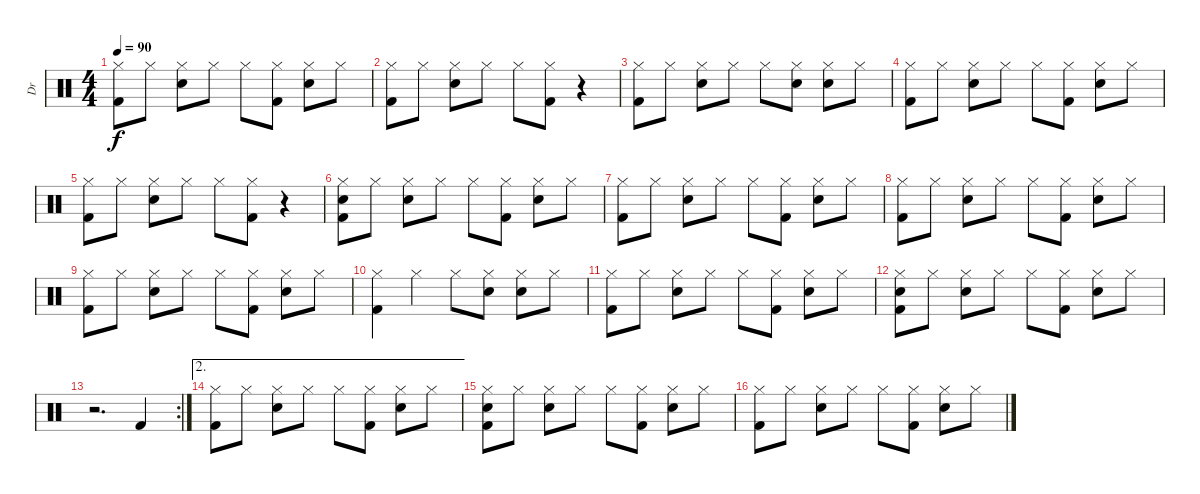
\track ("Dr" "Dr") {instrument percussion}
\staff {score}
\articulation defaults
\ts (4 4)
\tempo 90
\clef neutral
\ks c
("Hi-Hat (closed)" "Kick (hit) 2").8{dy f} "Hi-Hat (closed)".8 ("Hi-Hat (closed)" "Electric Snare (hit)").8 "Hi-Hat (closed)".8 "Hi-Hat (closed)".8 ("Hi-Hat (closed)" "Kick (hit) 2").8 ("Hi-Hat (closed)" "Electric Snare (hit)").8 "Hi-Hat (closed)".8 |
("Hi-Hat (closed)" "Kick (hit) 2").8 "Hi-Hat (closed)".8 ("Hi-Hat (closed)" "Electric Snare (hit)").8 "Hi-Hat (closed)".8 "Hi-Hat (closed)".8 ("Hi-Hat (closed)" "Kick (hit) 2").8 r.4 |
("Hi-Hat (closed)" "Kick (hit) 2").8 "Hi-Hat (closed)".8 ("Hi-Hat (closed)" "Electric Snare (hit)").8 "Hi-Hat (closed)".8 "Hi-Hat (closed)".8 ("Hi-Hat (closed)" "Electric Snare (hit)").8 ("Hi-Hat (closed)" "Electric Snare (hit)").8 "Hi-Hat (closed)".8 |
("Hi-Hat (closed)" "Kick (hit) 2").8 "Hi-Hat (closed)".8 ("Hi-Hat (closed)" "Electric Snare (hit)").8 "Hi-Hat (closed)".8 "Hi-Hat (closed)".8 ("Hi-Hat (closed)" "Kick (hit) 2").8 ("Hi-Hat (closed)" "Electric Snare (hit)").8 "Hi-Hat (closed)".8 |
("Hi-Hat (closed)" "Kick (hit) 2").8 "Hi-Hat (closed)".8 ("Hi-Hat (closed)" "Electric Snare (hit)").8 "Hi-Hat (closed)".8 "Hi-Hat (closed)".8 ("Hi-Hat (closed)" "Kick (hit) 2").8 r.4 |
("Hi-Hat (closed)" "Electric Snare (hit)" "Kick (hit) 2").8 "Hi-Hat (closed)".8 ("Hi-Hat (closed)" "Electric Snare (hit)").8 "Hi-Hat (closed)".8 "Hi-Hat (closed)".8 ("Hi-Hat (closed)" "Kick (hit) 2").8 ("Hi-Hat (closed)" "Electric Snare (hit)").8 "Hi-Hat (closed)".8 |
("Hi-Hat (closed)" "Kick (hit) 2").8 "Hi-Hat (closed)".8 ("Hi-Hat (closed)" "Electric Snare (hit)").8 "Hi-Hat (closed)".8 "Hi-Hat (closed)".8 ("Hi-Hat (closed)" "Kick (hit) 2").8 ("Hi-Hat (closed)" "Electric Snare (hit)").8 "Hi-Hat (closed)".8 |
("Hi-Hat (closed)" "Kick (hit) 2").8 "Hi-Hat (closed)".8 ("Hi-Hat (closed)" "Electric Snare (hit)").8 "Hi-Hat (closed)".8 "Hi-Hat (closed)".8 ("Hi-Hat (closed)" "Kick (hit) 2").8 ("Hi-Hat (closed)" "Electric Snare (hit)").8 "Hi-Hat (closed)".8 |
("Hi-Hat (closed)" "Kick (hit) 2").8 "Hi-Hat (closed)".8 ("Hi-Hat (closed)" "Electric Snare (hit)").8 "Hi-Hat (closed)".8 "Hi-Hat (closed)".8 ("Hi-Hat (closed)" "Kick (hit) 2").8 ("Hi-Hat (closed)" "Electric Snare (hit)").8 "Hi-Hat (closed)".8 |
("Hi-Hat (closed)" "Kick (hit) 2").4 "Hi-Hat (closed)".4 "Hi-Hat (closed)".8 ("Hi-Hat (closed)" "Electric Snare (hit)").8 ("Hi-Hat (closed)" "Electric Snare (hit)").8 "Hi-Hat (closed)".8 |
("Hi-Hat (closed)" "Kick (hit) 2").8 "Hi-Hat (closed)".8 ("Hi-Hat (closed)" "Electric Snare (hit)").8 "Hi-Hat (closed)".8 "Hi-Hat (closed)".8 ("Hi-Hat (closed)" "Kick (hit) 2").8 ("Hi-Hat (closed)" "Electric Snare (hit)").8 "Hi-Hat (closed)".8 |
("Hi-Hat (closed)" "Electric Snare (hit)" "Kick (hit) 2").8 "Hi-Hat (closed)".8 ("Hi-Hat (closed)" "Electric Snare (hit)").8 "Hi-Hat (closed)".8 "Hi-Hat (closed)".8 ("Hi-Hat (closed)" "Kick (hit) 2").8 ("Hi-Hat (closed)" "Electric Snare (hit)").8 "Hi-Hat (closed)".8 |
\rc 2
r.2{d} "Kick (hit) 2".4 |
\ae 2
("Hi-Hat (closed)" "Kick (hit) 2").8 "Hi-Hat (closed)".8 ("Hi-Hat (closed)" "Electric Snare (hit)").8 "Hi-Hat (closed)".8 "Hi-Hat (closed)".8 ("Hi-Hat (closed)" "Kick (hit) 2").8 ("Hi-Hat (closed)" "Electric Snare (hit)").8 "Hi-Hat (closed)".8 |
("Hi-Hat (closed)" "Electric Snare (hit)" "Kick (hit) 2").8 "Hi-Hat (closed)".8 ("Hi-Hat (closed)" "Electric Snare (hit)").8 "Hi-Hat (closed)".8 "Hi-Hat (closed)".8 ("Hi-Hat (closed)" "Kick (hit) 2").8 ("Hi-Hat (closed)" "Electric Snare (hit)").8 "Hi-Hat (closed)".8 |
("Hi-Hat (closed)" "Kick (hit) 2").8 "Hi-Hat (closed)".8 ("Hi-Hat (closed)" "Electric Snare (hit)").8 "Hi-Hat (closed)".8 "Hi-Hat (closed)".8 ("Hi-Hat (closed)" "Kick (hit) 2").8 ("Hi-Hat (closed)" "Electric Snare (hit)").8 "Hi-Hat (closed)".8
